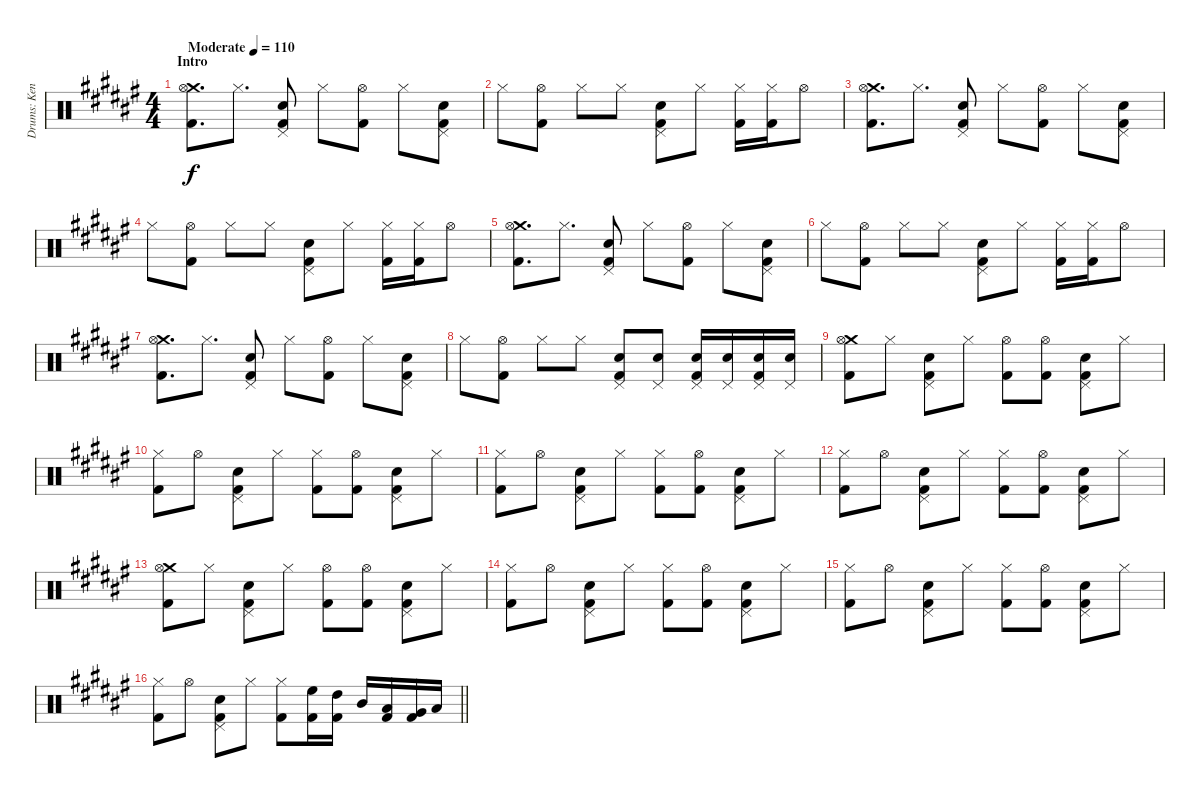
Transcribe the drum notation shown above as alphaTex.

\track ("Drums: Kenny Aronoff" "Drums: Ken") {instrument percussion}
\staff {score}
\articulation defaults
\ts (4 4)
\section ("" "Intro")
\tempo (110 "Moderate")
\clef neutral
\ks f#
("Crash medium (hit)" "Hi-Hat (open)" "Kick (hit) 2").8{d dy f} "Hi-Hat (closed)".8{d} ("Pedal Hi-Hat (hit)" "Snare (hit) 2" "Kick (hit) 2").8 "Hi-Hat (closed)".8 ("Hi-Hat (open)" "Kick (hit) 2").8 "Hi-Hat (closed)".8 ("Pedal Hi-Hat (hit)" "Snare (hit) 2" "Kick (hit) 2").8 |
"Hi-Hat (closed)".8 ("Hi-Hat (open)" "Kick (hit) 2").8 "Hi-Hat (closed)".8 "Hi-Hat (closed)".8 ("Pedal Hi-Hat (hit)" "Snare (hit) 2" "Kick (hit) 2").8 "Hi-Hat (closed)".8 ("Hi-Hat (closed)" "Kick (hit) 2").16 ("Hi-Hat (closed)" "Kick (hit) 2").16 "Hi-Hat (open)".8 |
("Crash medium (hit)" "Hi-Hat (open)" "Kick (hit) 2").8{d} "Hi-Hat (closed)".8{d} ("Pedal Hi-Hat (hit)" "Snare (hit) 2" "Kick (hit) 2").8 "Hi-Hat (closed)".8 ("Hi-Hat (open)" "Kick (hit) 2").8 "Hi-Hat (closed)".8 ("Pedal Hi-Hat (hit)" "Snare (hit) 2" "Kick (hit) 2").8 |
"Hi-Hat (closed)".8 ("Hi-Hat (open)" "Kick (hit) 2").8 "Hi-Hat (closed)".8 "Hi-Hat (closed)".8 ("Pedal Hi-Hat (hit)" "Snare (hit) 2" "Kick (hit) 2").8 "Hi-Hat (closed)".8 ("Hi-Hat (closed)" "Kick (hit) 2").16 ("Hi-Hat (closed)" "Kick (hit) 2").16 "Hi-Hat (open)".8 |
("Crash medium (hit)" "Hi-Hat (open)" "Kick (hit) 2").8{d} "Hi-Hat (closed)".8{d} ("Pedal Hi-Hat (hit)" "Snare (hit) 2" "Kick (hit) 2").8 "Hi-Hat (closed)".8 ("Hi-Hat (open)" "Kick (hit) 2").8 "Hi-Hat (closed)".8 ("Pedal Hi-Hat (hit)" "Snare (hit) 2" "Kick (hit) 2").8 |
"Hi-Hat (closed)".8 ("Hi-Hat (open)" "Kick (hit) 2").8 "Hi-Hat (closed)".8 "Hi-Hat (closed)".8 ("Pedal Hi-Hat (hit)" "Snare (hit) 2" "Kick (hit) 2").8 "Hi-Hat (closed)".8 ("Hi-Hat (closed)" "Kick (hit) 2").16 ("Hi-Hat (closed)" "Kick (hit) 2").16 "Hi-Hat (open)".8 |
("Crash medium (hit)" "Hi-Hat (open)" "Kick (hit) 2").8{d} "Hi-Hat (closed)".8{d} ("Pedal Hi-Hat (hit)" "Snare (hit) 2" "Kick (hit) 2").8 "Hi-Hat (closed)".8 ("Hi-Hat (open)" "Kick (hit) 2").8 "Hi-Hat (closed)".8 ("Pedal Hi-Hat (hit)" "Snare (hit) 2" "Kick (hit) 2").8 |
"Hi-Hat (closed)".8 ("Hi-Hat (open)" "Kick (hit) 2").8 "Hi-Hat (closed)".8 "Hi-Hat (closed)".8 ("Pedal Hi-Hat (hit)" "Snare (hit) 2" "Kick (hit) 2").8 ("Pedal Hi-Hat (hit)" "Snare (hit) 2").8 ("Pedal Hi-Hat (hit)" "Snare (hit) 2" "Kick (hit) 2").16 ("Pedal Hi-Hat (hit)" "Snare (hit) 2").16 ("Pedal Hi-Hat (hit)" "Snare (hit) 2" "Kick (hit) 2").16 ("Pedal Hi-Hat (hit)" "Snare (hit) 2").16 |
("Crash medium (hit)" "Hi-Hat (open)" "Kick (hit) 2").8 "Hi-Hat (closed)".8 ("Pedal Hi-Hat (hit)" "Snare (hit) 2" "Kick (hit) 2").8 "Hi-Hat (closed)".8 ("Hi-Hat (open)" "Kick (hit) 2").8 ("Hi-Hat (open)" "Kick (hit) 2").8 ("Pedal Hi-Hat (hit)" "Snare (hit) 2" "Kick (hit) 2").8 "Hi-Hat (closed)".8 |
("Hi-Hat (closed)" "Kick (hit) 2").8 "Hi-Hat (open)".8 ("Pedal Hi-Hat (hit)" "Snare (hit) 2" "Kick (hit) 2").8 "Hi-Hat (closed)".8 ("Hi-Hat (closed)" "Kick (hit) 2").8 ("Hi-Hat (open)" "Kick (hit) 2").8 ("Pedal Hi-Hat (hit)" "Snare (hit) 2" "Kick (hit) 2").8 "Hi-Hat (closed)".8 |
("Hi-Hat (closed)" "Kick (hit) 2").8 "Hi-Hat (open)".8 ("Pedal Hi-Hat (hit)" "Snare (hit) 2" "Kick (hit) 2").8 "Hi-Hat (closed)".8 ("Hi-Hat (closed)" "Kick (hit) 2").8 ("Hi-Hat (open)" "Kick (hit) 2").8 ("Pedal Hi-Hat (hit)" "Snare (hit) 2" "Kick (hit) 2").8 "Hi-Hat (closed)".8 |
("Hi-Hat (closed)" "Kick (hit) 2").8 "Hi-Hat (open)".8 ("Pedal Hi-Hat (hit)" "Snare (hit) 2" "Kick (hit) 2").8 "Hi-Hat (closed)".8 ("Hi-Hat (closed)" "Kick (hit) 2").8 ("Hi-Hat (open)" "Kick (hit) 2").8 ("Pedal Hi-Hat (hit)" "Snare (hit) 2" "Kick (hit) 2").8 "Hi-Hat (closed)".8 |
("Crash medium (hit)" "Hi-Hat (open)" "Kick (hit) 2").8 "Hi-Hat (closed)".8 ("Pedal Hi-Hat (hit)" "Snare (hit) 2" "Kick (hit) 2").8 "Hi-Hat (closed)".8 ("Hi-Hat (open)" "Kick (hit) 2").8 ("Hi-Hat (open)" "Kick (hit) 2").8 ("Pedal Hi-Hat (hit)" "Snare (hit) 2" "Kick (hit) 2").8 "Hi-Hat (closed)".8 |
("Hi-Hat (closed)" "Kick (hit) 2").8 "Hi-Hat (open)".8 ("Pedal Hi-Hat (hit)" "Snare (hit) 2" "Kick (hit) 2").8 "Hi-Hat (closed)".8 ("Hi-Hat (closed)" "Kick (hit) 2").8 ("Hi-Hat (open)" "Kick (hit) 2").8 ("Pedal Hi-Hat (hit)" "Snare (hit) 2" "Kick (hit) 2").8 "Hi-Hat (closed)".8 |
("Hi-Hat (closed)" "Kick (hit) 2").8 "Hi-Hat (open)".8 ("Pedal Hi-Hat (hit)" "Snare (hit) 2" "Kick (hit) 2").8 "Hi-Hat (closed)".8 ("Hi-Hat (closed)" "Kick (hit) 2").8 ("Hi-Hat (open)" "Kick (hit) 2").8 ("Pedal Hi-Hat (hit)" "Snare (hit) 2" "Kick (hit) 2").8 "Hi-Hat (closed)".8 |
\barLineRight lightlight
("Hi-Hat (closed)" "Kick (hit) 2").8 "Hi-Hat (open)".8 ("Pedal Hi-Hat (hit)" "Snare (hit) 2" "Kick (hit) 2").8 "Hi-Hat (closed)".8 ("Hi-Hat (closed)" "Kick (hit) 2").8 ("High Floor Tom (hit)" "Kick (hit) 2").16 ("High Tom (hit)" "Kick (hit) 2").16 "Mid Tom (hit)".16 ("Low Tom (hit)" "Kick (hit) 2").16 ("Very Low Tom (hit)" "Kick (hit) 2").16 "Low Floor Tom (hit)".16
